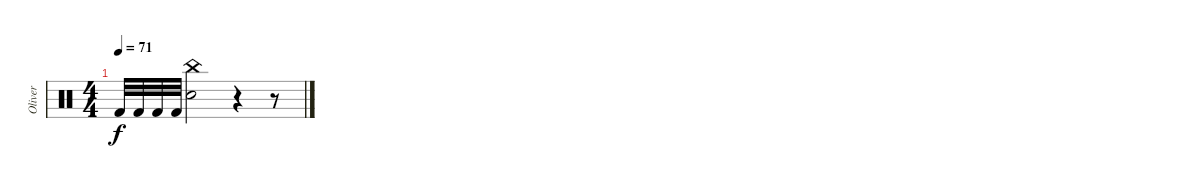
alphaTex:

\track ("Oliver" "Oliver") {instrument percussion}
\staff {score}
\articulation defaults
\ts (4 4)
\tempo 71
\clef neutral
\ks c "Kick (hit) 2".32{dy f} "Kick (hit) 2".32 "Kick (hit) 2".32 "Kick (hit) 2".32
("Snare (hit) 2" "China (hit)").2 r.4 r.8
